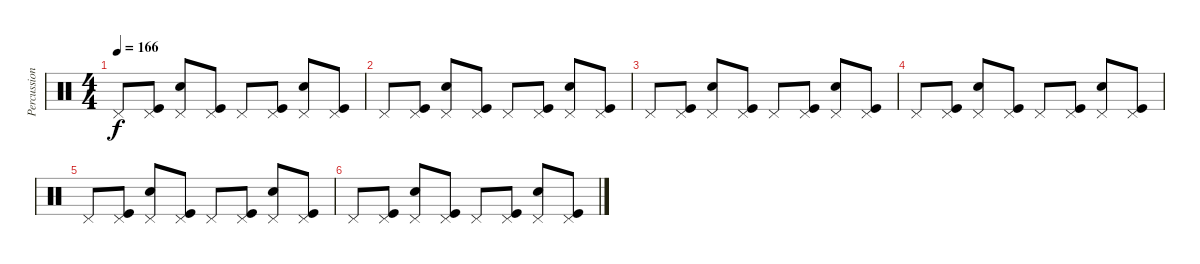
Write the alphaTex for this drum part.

\track ("Percussions" "Percussion") {instrument percussion}
\staff {score}
\articulation defaults
\ts (4 4)
\tempo 166
\clef neutral
\ks c "Pedal Hi-Hat (hit)".8{dy f}
("Pedal Hi-Hat (hit)" "Kick (hit)").8 ("Pedal Hi-Hat (hit)" "Snare (hit) 2").8 ("Pedal Hi-Hat (hit)" "Kick (hit)").8 "Pedal Hi-Hat (hit)".8 ("Pedal Hi-Hat (hit)" "Kick (hit)").8 ("Pedal Hi-Hat (hit)" "Snare (hit) 2").8 ("Pedal Hi-Hat (hit)" "Kick (hit)").8 |
"Pedal Hi-Hat (hit)".8 ("Pedal Hi-Hat (hit)" "Kick (hit)").8 ("Pedal Hi-Hat (hit)" "Snare (hit) 2").8 ("Pedal Hi-Hat (hit)" "Kick (hit)").8 "Pedal Hi-Hat (hit)".8 ("Pedal Hi-Hat (hit)" "Kick (hit)").8 ("Pedal Hi-Hat (hit)" "Snare (hit) 2").8 ("Pedal Hi-Hat (hit)" "Kick (hit)").8 |
"Pedal Hi-Hat (hit)".8 ("Pedal Hi-Hat (hit)" "Kick (hit)").8 ("Pedal Hi-Hat (hit)" "Snare (hit) 2").8 ("Pedal Hi-Hat (hit)" "Kick (hit)").8 "Pedal Hi-Hat (hit)".8 ("Pedal Hi-Hat (hit)" "Kick (hit)").8 ("Pedal Hi-Hat (hit)" "Snare (hit) 2").8 ("Pedal Hi-Hat (hit)" "Kick (hit)").8 |
"Pedal Hi-Hat (hit)".8 ("Pedal Hi-Hat (hit)" "Kick (hit)").8 ("Pedal Hi-Hat (hit)" "Snare (hit) 2").8 ("Pedal Hi-Hat (hit)" "Kick (hit)").8 "Pedal Hi-Hat (hit)".8 ("Pedal Hi-Hat (hit)" "Kick (hit)").8 ("Pedal Hi-Hat (hit)" "Snare (hit) 2").8 ("Pedal Hi-Hat (hit)" "Kick (hit)").8 |
"Pedal Hi-Hat (hit)".8 ("Pedal Hi-Hat (hit)" "Kick (hit)").8 ("Pedal Hi-Hat (hit)" "Snare (hit) 2").8 ("Pedal Hi-Hat (hit)" "Kick (hit)").8 "Pedal Hi-Hat (hit)".8 ("Pedal Hi-Hat (hit)" "Kick (hit)").8 ("Pedal Hi-Hat (hit)" "Snare (hit) 2").8 ("Pedal Hi-Hat (hit)" "Kick (hit)").8 |
"Pedal Hi-Hat (hit)".8 ("Pedal Hi-Hat (hit)" "Kick (hit)").8 ("Pedal Hi-Hat (hit)" "Snare (hit) 2").8 ("Pedal Hi-Hat (hit)" "Kick (hit)").8 "Pedal Hi-Hat (hit)".8 ("Pedal Hi-Hat (hit)" "Kick (hit)").8 ("Pedal Hi-Hat (hit)" "Snare (hit) 2").8 ("Pedal Hi-Hat (hit)" "Kick (hit)").8
